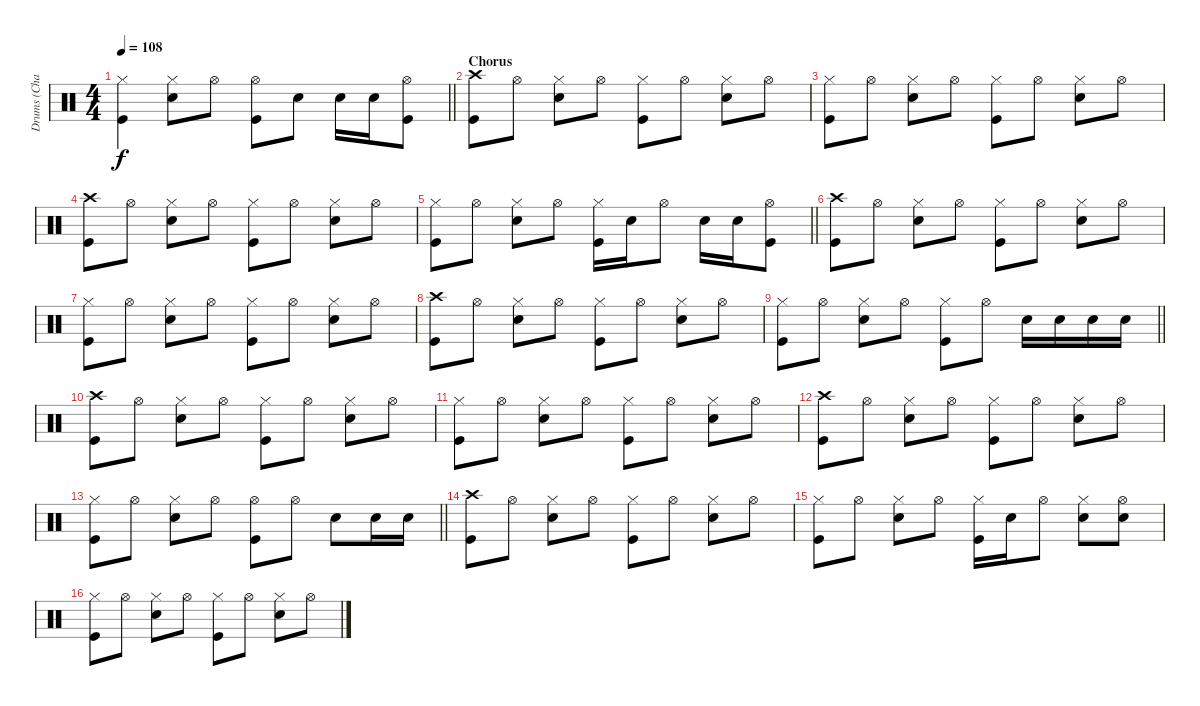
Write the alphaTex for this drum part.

\track ("Drums (Chad Smith)" "Drums (Cha") {instrument percussion}
\staff {score}
\articulation defaults
\ts (4 4)
\tempo 108
\clef neutral
\barLineRight lightlight
\ks c
("Hi-Hat (closed)" "Kick (hit)").4{dy f} ("Hi-Hat (closed)" "Snare (hit) 2").8 "Hi-Hat (open)".8 ("Hi-Hat (open)" "Kick (hit)").8 "Snare (hit) 2".8 "Snare (hit) 2".16 "Snare (hit) 2".16 ("Hi-Hat (open)" "Kick (hit)").8 |
\section ("" "Chorus")
("Crash high (hit)" "Kick (hit)").8 "Hi-Hat (open)".8 ("Hi-Hat (closed)" "Snare (hit) 2").8 "Hi-Hat (open)".8 ("Hi-Hat (closed)" "Kick (hit)").8 "Hi-Hat (open)".8 ("Hi-Hat (closed)" "Snare (hit) 2").8 "Hi-Hat (open)".8 |
("Hi-Hat (closed)" "Kick (hit)").8 "Hi-Hat (open)".8 ("Hi-Hat (closed)" "Snare (hit) 2").8 "Hi-Hat (open)".8 ("Hi-Hat (closed)" "Kick (hit)").8 "Hi-Hat (open)".8 ("Hi-Hat (closed)" "Snare (hit) 2").8 "Hi-Hat (open)".8 |
("Crash high (hit)" "Kick (hit)").8 "Hi-Hat (open)".8 ("Hi-Hat (closed)" "Snare (hit) 2").8 "Hi-Hat (open)".8 ("Hi-Hat (closed)" "Kick (hit)").8 "Hi-Hat (open)".8 ("Hi-Hat (closed)" "Snare (hit) 2").8 "Hi-Hat (open)".8 |
\barLineRight lightlight
("Hi-Hat (closed)" "Kick (hit)").8 "Hi-Hat (open)".8 ("Hi-Hat (closed)" "Snare (hit) 2").8 "Hi-Hat (open)".8 ("Hi-Hat (closed)" "Kick (hit)").16 "Snare (hit) 2".16 "Hi-Hat (open)".8 "Snare (hit) 2".16 "Snare (hit) 2".16 ("Hi-Hat (open)" "Kick (hit)").8 |
("Crash high (hit)" "Kick (hit)").8 "Hi-Hat (open)".8 ("Hi-Hat (closed)" "Snare (hit) 2").8 "Hi-Hat (open)".8 ("Hi-Hat (closed)" "Kick (hit)").8 "Hi-Hat (open)".8 ("Hi-Hat (closed)" "Snare (hit) 2").8 "Hi-Hat (open)".8 |
("Hi-Hat (closed)" "Kick (hit)").8 "Hi-Hat (open)".8 ("Hi-Hat (closed)" "Snare (hit) 2").8 "Hi-Hat (open)".8 ("Hi-Hat (closed)" "Kick (hit)").8 "Hi-Hat (open)".8 ("Hi-Hat (closed)" "Snare (hit) 2").8 "Hi-Hat (open)".8 |
("Crash high (hit)" "Kick (hit)").8 "Hi-Hat (open)".8 ("Hi-Hat (closed)" "Snare (hit) 2").8 "Hi-Hat (open)".8 ("Hi-Hat (closed)" "Kick (hit)").8 "Hi-Hat (open)".8 ("Hi-Hat (closed)" "Snare (hit) 2").8 "Hi-Hat (open)".8 |
\barLineRight lightlight
("Hi-Hat (closed)" "Kick (hit)").8 "Hi-Hat (open)".8 ("Hi-Hat (closed)" "Snare (hit) 2").8 "Hi-Hat (open)".8 ("Hi-Hat (closed)" "Kick (hit)").8 "Hi-Hat (open)".8 "Snare (hit) 2".16 "Snare (hit) 2".16 "Snare (hit) 2".16 "Snare (hit) 2".16 |
("Crash high (hit)" "Kick (hit)").8 "Hi-Hat (open)".8 ("Hi-Hat (closed)" "Snare (hit) 2").8 "Hi-Hat (open)".8 ("Hi-Hat (closed)" "Kick (hit)").8 "Hi-Hat (open)".8 ("Hi-Hat (closed)" "Snare (hit) 2").8 "Hi-Hat (open)".8 |
("Hi-Hat (closed)" "Kick (hit)").8 "Hi-Hat (open)".8 ("Hi-Hat (closed)" "Snare (hit) 2").8 "Hi-Hat (open)".8 ("Hi-Hat (closed)" "Kick (hit)").8 "Hi-Hat (open)".8 ("Hi-Hat (closed)" "Snare (hit) 2").8 "Hi-Hat (open)".8 |
("Crash high (hit)" "Kick (hit)").8 "Hi-Hat (open)".8 ("Hi-Hat (closed)" "Snare (hit) 2").8 "Hi-Hat (open)".8 ("Hi-Hat (closed)" "Kick (hit)").8 "Hi-Hat (open)".8 ("Hi-Hat (closed)" "Snare (hit) 2").8 "Hi-Hat (open)".8 |
\barLineRight lightlight
("Hi-Hat (closed)" "Kick (hit)").8 "Hi-Hat (open)".8 ("Hi-Hat (closed)" "Snare (hit) 2").8 "Hi-Hat (open)".8 ("Hi-Hat (open)" "Kick (hit)").8 "Hi-Hat (open)".8 "Snare (hit) 2".8 "Snare (hit) 2".16 "Snare (hit) 2".16 |
("Crash high (hit)" "Kick (hit)").8 "Hi-Hat (open)".8 ("Hi-Hat (closed)" "Snare (hit) 2").8 "Hi-Hat (open)".8 ("Hi-Hat (closed)" "Kick (hit)").8 "Hi-Hat (open)".8 ("Hi-Hat (closed)" "Snare (hit) 2").8 "Hi-Hat (open)".8 |
("Hi-Hat (closed)" "Kick (hit)").8 "Hi-Hat (open)".8 ("Hi-Hat (closed)" "Snare (hit) 2").8 "Hi-Hat (open)".8 ("Hi-Hat (closed)" "Kick (hit)").16 "Snare (hit) 2".16 "Hi-Hat (open)".8 ("Hi-Hat (closed)" "Snare (hit) 2").8 ("Hi-Hat (open)" "Snare (hit) 2").8 |
("Hi-Hat (closed)" "Kick (hit)").8 "Hi-Hat (open)".8 ("Hi-Hat (closed)" "Snare (hit) 2").8 "Hi-Hat (open)".8 ("Hi-Hat (closed)" "Kick (hit)").8 "Hi-Hat (open)".8 ("Hi-Hat (closed)" "Snare (hit) 2").8 "Hi-Hat (open)".8
